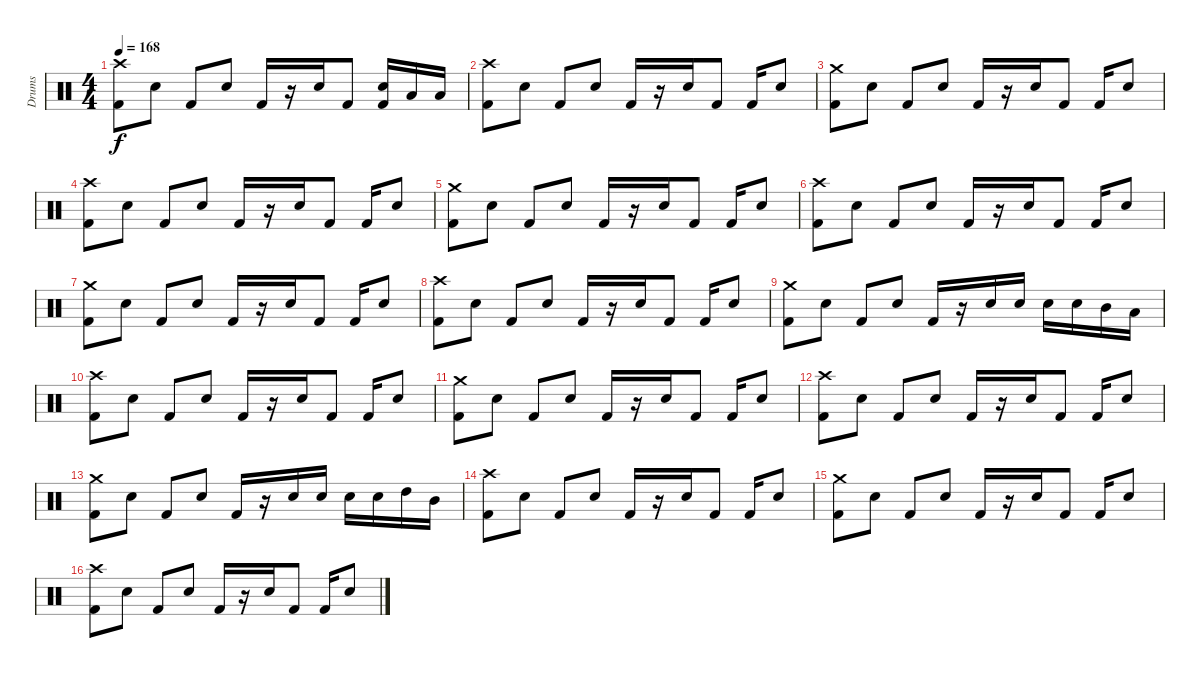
\track ("Drums" "Drums") {instrument percussion}
\staff {score}
\articulation defaults
\ts (4 4)
\tempo 168
\clef neutral
\ks c
("Crash high (hit)" "Kick (hit) 2").8{dy f} "Electric Snare (hit)".8 "Kick (hit) 2".8 "Electric Snare (hit)".8 "Kick (hit) 2".16 r.16 "Electric Snare (hit)".16 "Kick (hit) 2".8 ("Electric Snare (hit)" "Kick (hit) 2").16 "Low Tom (hit)".16 "Low Tom (hit)".16 |
("Crash high (hit)" "Kick (hit) 2").8 "Electric Snare (hit)".8 "Kick (hit) 2".8 "Electric Snare (hit)".8 "Kick (hit) 2".16 r.16 "Electric Snare (hit)".16 "Kick (hit) 2".8 "Kick (hit) 2".16 "Electric Snare (hit)".8 |
("Crash medium (hit)" "Kick (hit) 2").8 "Electric Snare (hit)".8 "Kick (hit) 2".8 "Electric Snare (hit)".8 "Kick (hit) 2".16 r.16 "Electric Snare (hit)".16 "Kick (hit) 2".8 "Kick (hit) 2".16 "Electric Snare (hit)".8 |
("Crash high (hit)" "Kick (hit) 2").8 "Electric Snare (hit)".8 "Kick (hit) 2".8 "Electric Snare (hit)".8 "Kick (hit) 2".16 r.16 "Electric Snare (hit)".16 "Kick (hit) 2".8 "Kick (hit) 2".16 "Electric Snare (hit)".8 |
("Crash medium (hit)" "Kick (hit) 2").8 "Electric Snare (hit)".8 "Kick (hit) 2".8 "Electric Snare (hit)".8 "Kick (hit) 2".16 r.16 "Electric Snare (hit)".16 "Kick (hit) 2".8 "Kick (hit) 2".16 "Electric Snare (hit)".8 |
("Crash high (hit)" "Kick (hit) 2").8 "Electric Snare (hit)".8 "Kick (hit) 2".8 "Electric Snare (hit)".8 "Kick (hit) 2".16 r.16 "Electric Snare (hit)".16 "Kick (hit) 2".8 "Kick (hit) 2".16 "Electric Snare (hit)".8 |
("Crash medium (hit)" "Kick (hit) 2").8 "Electric Snare (hit)".8 "Kick (hit) 2".8 "Electric Snare (hit)".8 "Kick (hit) 2".16 r.16 "Electric Snare (hit)".16 "Kick (hit) 2".8 "Kick (hit) 2".16 "Electric Snare (hit)".8 |
("Crash high (hit)" "Kick (hit) 2").8 "Electric Snare (hit)".8 "Kick (hit) 2".8 "Electric Snare (hit)".8 "Kick (hit) 2".16 r.16 "Electric Snare (hit)".16 "Kick (hit) 2".8 "Kick (hit) 2".16 "Electric Snare (hit)".8 |
("Crash medium (hit)" "Kick (hit) 2").8 "Electric Snare (hit)".8 "Kick (hit) 2".8 "Electric Snare (hit)".8 "Kick (hit) 2".16 r.16 "Electric Snare (hit)".16 "Electric Snare (hit)".16 "Electric Snare (hit)".16 "Electric Snare (hit)".16 "Mid Tom (hit)".16 "Low Tom (hit)".16 |
("Crash high (hit)" "Kick (hit) 2").8 "Electric Snare (hit)".8 "Kick (hit) 2".8 "Electric Snare (hit)".8 "Kick (hit) 2".16 r.16 "Electric Snare (hit)".16 "Kick (hit) 2".8 "Kick (hit) 2".16 "Electric Snare (hit)".8 |
("Crash medium (hit)" "Kick (hit) 2").8 "Electric Snare (hit)".8 "Kick (hit) 2".8 "Electric Snare (hit)".8 "Kick (hit) 2".16 r.16 "Electric Snare (hit)".16 "Kick (hit) 2".8 "Kick (hit) 2".16 "Electric Snare (hit)".8 |
("Crash high (hit)" "Kick (hit) 2").8 "Electric Snare (hit)".8 "Kick (hit) 2".8 "Electric Snare (hit)".8 "Kick (hit) 2".16 r.16 "Electric Snare (hit)".16 "Kick (hit) 2".8 "Kick (hit) 2".16 "Electric Snare (hit)".8 |
("Crash medium (hit)" "Kick (hit) 2").8 "Electric Snare (hit)".8 "Kick (hit) 2".8 "Electric Snare (hit)".8 "Kick (hit) 2".16 r.16 "Electric Snare (hit)".16 "Electric Snare (hit)".16 "Electric Snare (hit)".16 "Electric Snare (hit)".16 "High Tom (hit)".16 "Mid Tom (hit)".16 |
("Crash high (hit)" "Kick (hit) 2").8 "Electric Snare (hit)".8 "Kick (hit) 2".8 "Electric Snare (hit)".8 "Kick (hit) 2".16 r.16 "Electric Snare (hit)".16 "Kick (hit) 2".8 "Kick (hit) 2".16 "Electric Snare (hit)".8 |
("Crash medium (hit)" "Kick (hit) 2").8 "Electric Snare (hit)".8 "Kick (hit) 2".8 "Electric Snare (hit)".8 "Kick (hit) 2".16 r.16 "Electric Snare (hit)".16 "Kick (hit) 2".8 "Kick (hit) 2".16 "Electric Snare (hit)".8 |
("Crash high (hit)" "Kick (hit) 2").8 "Electric Snare (hit)".8 "Kick (hit) 2".8 "Electric Snare (hit)".8 "Kick (hit) 2".16 r.16 "Electric Snare (hit)".16 "Kick (hit) 2".8 "Kick (hit) 2".16 "Electric Snare (hit)".8
